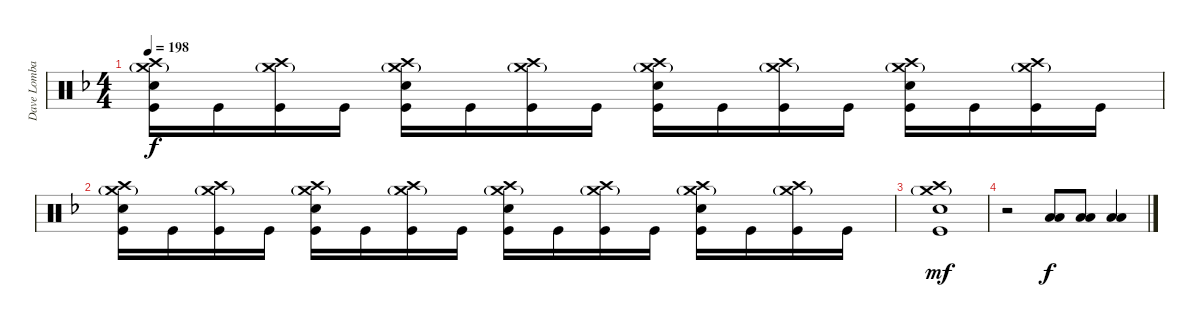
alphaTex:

\track ("Dave Lombardo - Drums" "Dave Lomba") {instrument percussion}
\staff {score}
\articulation defaults
\ts (4 4)
\tempo 198
\clef neutral
\ks f
("Crash high (hit)" "Crash medium (hit)"{g} "Snare (hit) 2" "Kick (hit)").16{dy f} "Kick (hit)".16 ("Crash high (hit)" "Crash medium (hit)"{g} "Kick (hit)").16 "Kick (hit)".16 ("Crash high (hit)" "Crash medium (hit)"{g} "Snare (hit) 2" "Kick (hit)").16 "Kick (hit)".16 ("Crash high (hit)" "Crash medium (hit)"{g} "Kick (hit)").16 "Kick (hit)".16 ("Crash high (hit)" "Crash medium (hit)"{g} "Snare (hit) 2" "Kick (hit)").16 "Kick (hit)".16 ("Crash high (hit)" "Crash medium (hit)"{g} "Kick (hit)").16 "Kick (hit)".16 ("Crash high (hit)" "Crash medium (hit)"{g} "Snare (hit) 2" "Kick (hit)").16 "Kick (hit)".16 ("Crash high (hit)" "Crash medium (hit)"{g} "Kick (hit)").16 "Kick (hit)".16 |
("Crash high (hit)" "Crash medium (hit)"{g} "Snare (hit) 2" "Kick (hit)").16 "Kick (hit)".16 ("Crash high (hit)" "Crash medium (hit)"{g} "Kick (hit)").16 "Kick (hit)".16 ("Crash high (hit)" "Crash medium (hit)"{g} "Snare (hit) 2" "Kick (hit)").16 "Kick (hit)".16 ("Crash high (hit)" "Crash medium (hit)"{g} "Kick (hit)").16 "Kick (hit)".16 ("Crash high (hit)" "Crash medium (hit)"{g} "Snare (hit) 2" "Kick (hit)").16 "Kick (hit)".16 ("Crash high (hit)" "Crash medium (hit)"{g} "Kick (hit)").16 "Kick (hit)".16 ("Crash high (hit)" "Crash medium (hit)"{g} "Snare (hit) 2" "Kick (hit)").16 "Kick (hit)".16 ("Crash high (hit)" "Crash medium (hit)"{g} "Kick (hit)").16 "Kick (hit)".16 |
("Crash high (hit)" "Crash medium (hit)"{g} "Snare (hit) 2" "Kick (hit)").1{dy mf} |
r.2 ("Low Tom (hit)" "Low Tom (hit)").8{dy f} ("Low Tom (hit)" "Low Tom (hit)").8 ("Low Tom (hit)" "Low Floor Tom (hit)").4
